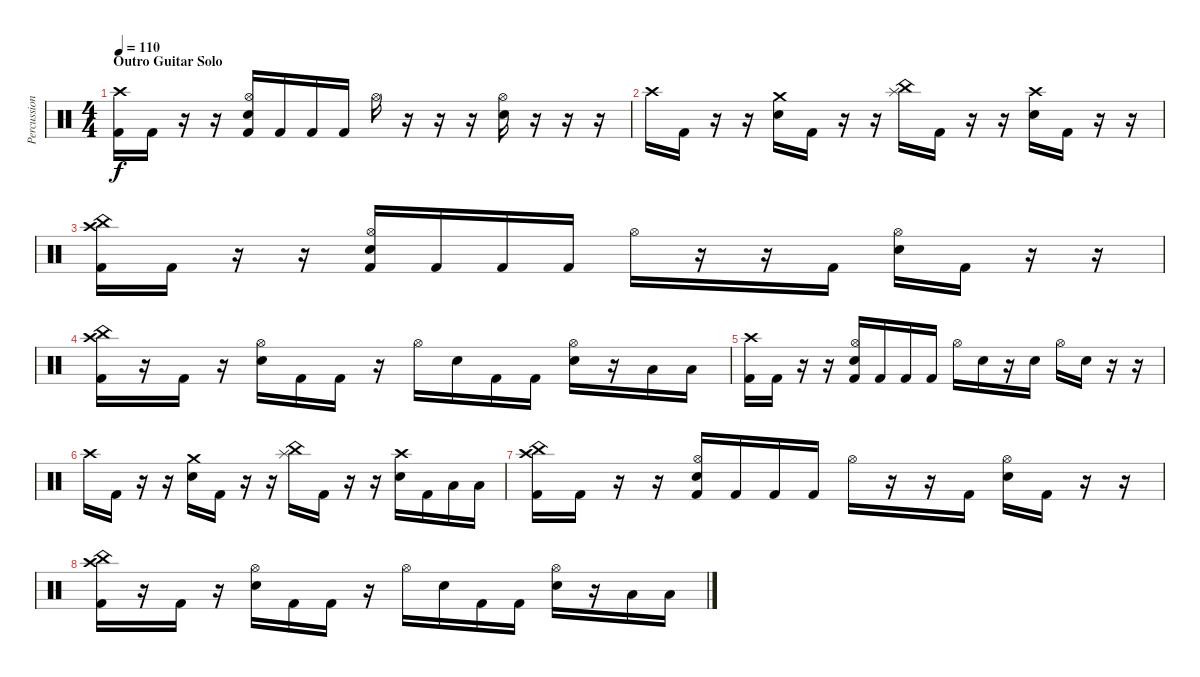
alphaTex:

\track ("Percussion" "Percussion") {instrument percussion}
\staff {score}
\articulation defaults
\ts (4 4)
\section ("" "Outro Guitar Solo")
\tempo 110
\clef neutral
\ks c
("Crash high (hit)" "Kick (hit) 2").16{dy f} "Kick (hit) 2".16 r.16 r.16 ("Hi-Hat (open)" "Electric Snare (hit)" "Kick (hit) 2").16 "Kick (hit) 2".16 "Kick (hit) 2".16 "Kick (hit) 2".16 "Hi-Hat (open)".16 r.16 r.16 r.16 ("Hi-Hat (open)" "Electric Snare (hit)").16 r.16 r.16 r.16 |
"Crash high (hit)".16 "Kick (hit) 2".16 r.16 r.16 ("Crash medium (hit)" "Electric Snare (hit)").16 "Kick (hit) 2".16 r.16 r.16 ("Splash (hit)" "China (hit)").16 "Kick (hit) 2".16 r.16 r.16 ("Crash high (hit)" "Electric Snare (hit)").16 "Kick (hit) 2".16 r.16 r.16 |
("China (hit)" "Crash high (hit)" "Kick (hit) 2").16 "Kick (hit) 2".16 r.16 r.16 ("Hi-Hat (open)" "Electric Snare (hit)" "Kick (hit) 2").16 "Kick (hit) 2".16 "Kick (hit) 2".16 "Kick (hit) 2".16 "Hi-Hat (open)".16 r.16 r.16 "Kick (hit) 2".16 ("Hi-Hat (open)" "Electric Snare (hit)").16 "Kick (hit) 2".16 r.16 r.16 |
("China (hit)" "Crash high (hit)" "Kick (hit) 2").16 r.16 "Kick (hit) 2".16 r.16 ("Hi-Hat (open)" "Electric Snare (hit)").16 "Kick (hit) 2".16 "Kick (hit) 2".16 r.16 "Hi-Hat (open)".16 "Electric Snare (hit)".16 "Kick (hit) 2".16 "Kick (hit) 2".16 ("Hi-Hat (open)" "Electric Snare (hit)").16 r.16 "Low Tom (hit)".16 "Low Floor Tom (hit)".16 |
("Crash high (hit)" "Kick (hit) 2").16 "Kick (hit) 2".16 r.16 r.16 ("Hi-Hat (open)" "Electric Snare (hit)" "Kick (hit) 2").16 "Kick (hit) 2".16 "Kick (hit) 2".16 "Kick (hit) 2".16 "Hi-Hat (open)".16 "Electric Snare (hit)".16 r.16 "Electric Snare (hit)".16 "Hi-Hat (open)".16 "Electric Snare (hit)".16 r.16 r.16 |
"Crash high (hit)".16 "Kick (hit) 2".16 r.16 r.16 ("Crash medium (hit)" "Electric Snare (hit)").16 "Kick (hit) 2".16 r.16 r.16 ("Splash (hit)" "China (hit)").16 "Kick (hit) 2".16 r.16 r.16 ("Crash high (hit)" "Electric Snare (hit)").16 "Kick (hit) 2".16 "Low Tom (hit)".16 "Low Floor Tom (hit)".16 |
("China (hit)" "Crash high (hit)" "Kick (hit) 2").16 "Kick (hit) 2".16 r.16 r.16 ("Hi-Hat (open)" "Electric Snare (hit)" "Kick (hit) 2").16 "Kick (hit) 2".16 "Kick (hit) 2".16 "Kick (hit) 2".16 "Hi-Hat (open)".16 r.16 r.16 "Kick (hit) 2".16 ("Hi-Hat (open)" "Electric Snare (hit)").16 "Kick (hit) 2".16 r.16 r.16 |
("China (hit)" "Crash high (hit)" "Kick (hit) 2").16 r.16 "Kick (hit) 2".16 r.16 ("Hi-Hat (open)" "Electric Snare (hit)").16 "Kick (hit) 2".16 "Kick (hit) 2".16 r.16 "Hi-Hat (open)".16 "Electric Snare (hit)".16 "Kick (hit) 2".16 "Kick (hit) 2".16 ("Hi-Hat (open)" "Electric Snare (hit)").16 r.16 "Low Tom (hit)".16 "Low Floor Tom (hit)".16
